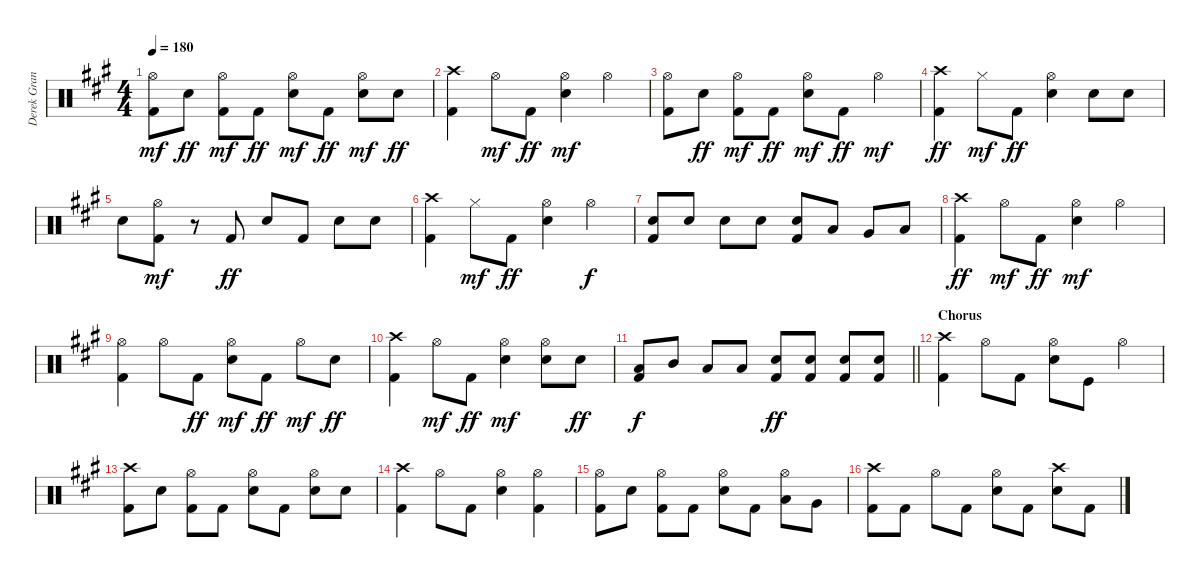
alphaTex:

\track ("Derek Grant - Drums" "Derek Gran") {instrument percussion}
\staff {score}
\articulation defaults
\ts (4 4)
\tempo 180
\clef neutral
\ks a
("Kick (hit) 2" "Hi-Hat (open)").8{dy mf} "Snare (hit) 2".8{dy ff} ("Kick (hit) 2" "Hi-Hat (open)").8{dy mf} "Kick (hit) 2".8{dy ff} ("Snare (hit) 2" "Hi-Hat (open)").8{dy mf} "Kick (hit) 2".8{dy ff} ("Snare (hit) 2" "Hi-Hat (open)").8{dy mf} "Snare (hit) 2".8{dy ff} |
("Crash high (hit)" "Kick (hit) 2").4 "Hi-Hat (open)".8{dy mf} "Kick (hit) 2".8{dy ff} ("Snare (hit) 2" "Hi-Hat (open)").4{dy mf} "Hi-Hat (open)".4 |
("Kick (hit) 2" "Hi-Hat (open)").8 "Snare (hit) 2".8{dy ff} ("Kick (hit) 2" "Hi-Hat (open)").8{dy mf} "Kick (hit) 2".8{dy ff} ("Snare (hit) 2" "Hi-Hat (open)").8{dy mf} "Kick (hit) 2".8{dy ff} "Hi-Hat (open)".4{dy mf} |
("Crash high (hit)" "Kick (hit) 2").4{dy ff} "Hi-Hat (closed)".8{dy mf} "Kick (hit) 2".8{dy ff} ("Hi-Hat (open)" "Snare (hit) 2").4 "Snare (hit) 2".8 "Snare (hit) 2".8 |
"Snare (hit) 2".8 ("Kick (hit) 2" "Hi-Hat (open)").8{dy mf} r.8 "Kick (hit) 2".8{dy ff} "Snare (hit) 2".8 "Kick (hit) 2".8 "Snare (hit) 2".8 "Snare (hit) 2".8 |
("Crash high (hit)" "Kick (hit) 2").4 "Hi-Hat (closed)".8{dy mf} "Kick (hit) 2".8{dy ff} ("Hi-Hat (open)" "Snare (hit) 2").4 "Hi-Hat (open)".4{dy f} |
("Kick (hit) 2" "Snare (hit) 2").8 "Snare (hit) 2".8 "Snare (hit) 2".8 "Snare (hit) 2".8 ("Snare (hit) 2" "Kick (hit) 2").8 "Low Tom (hit)".8 "Very Low Tom (hit)".8 "Low Floor Tom (hit)".8 |
("Crash high (hit)" "Kick (hit) 2").4{dy ff} "Hi-Hat (open)".8{dy mf} "Kick (hit) 2".8{dy ff} ("Snare (hit) 2" "Hi-Hat (open)").4{dy mf} "Hi-Hat (open)".4 |
("Kick (hit) 2" "Hi-Hat (open)").4 "Hi-Hat (open)".8 "Kick (hit) 2".8{dy ff} ("Snare (hit) 2" "Hi-Hat (open)").8{dy mf} "Kick (hit) 2".8{dy ff} "Hi-Hat (open)".8{dy mf} "Snare (hit) 2".8{dy ff} |
("Crash high (hit)" "Kick (hit) 2").4 "Hi-Hat (open)".8{dy mf} "Kick (hit) 2".8{dy ff} ("Snare (hit) 2" "Hi-Hat (open)").4{dy mf} ("Snare (hit) 2" "Hi-Hat (open)").8 "Snare (hit) 2".8{dy ff} |
\barLineRight lightlight
("Low Tom (hit)" "Kick (hit) 2").8{dy f} "Mid Tom (hit)".8 "Low Tom (hit)".8 "Low Tom (hit)".8 ("Kick (hit) 2" "Snare (hit) 2").8{dy ff} ("Kick (hit) 2" "Snare (hit) 2").8 ("Kick (hit) 2" "Snare (hit) 2").8 ("Kick (hit) 2" "Snare (hit) 2").8 |
\section ("" "Chorus")
("Kick (hit) 2" "Crash high (hit)").4{volume 12} "Hi-Hat (open)".8 "Kick (hit) 2".8 ("Snare (hit) 2" "Hi-Hat (open)").8 "Kick (hit)".8 "Hi-Hat (open)".4 |
("Kick (hit) 2" "Crash high (hit)").8 "Snare (hit) 2".8 ("Kick (hit) 2" "Hi-Hat (open)").8 "Kick (hit) 2".8 ("Snare (hit) 2" "Hi-Hat (open)").8 "Kick (hit) 2".8 ("Snare (hit) 2" "Hi-Hat (open)").8 "Snare (hit) 2".8 |
("Kick (hit) 2" "Crash high (hit)").4 "Hi-Hat (open)".8 "Kick (hit) 2".8 ("Snare (hit) 2" "Hi-Hat (open)").4 ("Kick (hit) 2" "Hi-Hat (open)").4 |
("Kick (hit) 2" "Hi-Hat (open)").8 "Snare (hit) 2".8 ("Kick (hit) 2" "Hi-Hat (open)").8 "Kick (hit) 2".8 ("Snare (hit) 2" "Hi-Hat (open)").8 "Kick (hit) 2".8 ("Low Tom (hit)" "Hi-Hat (open)").8 "Very Low Tom (hit)".8 |
("Kick (hit) 2" "Crash high (hit)").8 "Kick (hit) 2".8 "Hi-Hat (open)".8 "Kick (hit) 2".8 ("Snare (hit) 2" "Hi-Hat (open)").8 "Kick (hit) 2".8 ("Snare (hit) 2" "Crash high (hit)").8 "Kick (hit) 2".8
